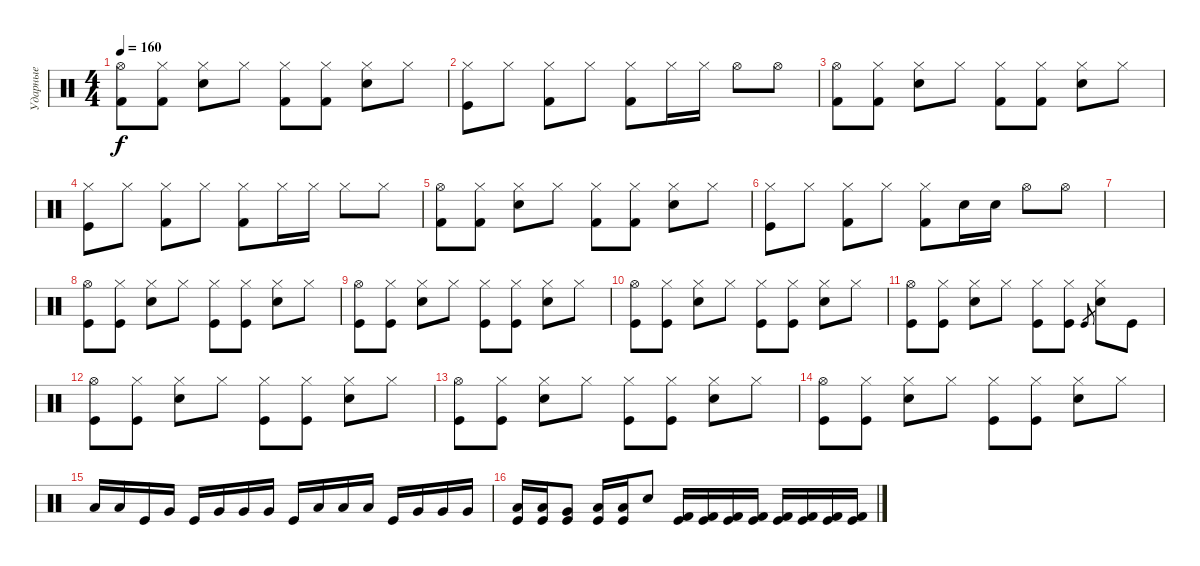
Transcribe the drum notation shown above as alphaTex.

\track ("Ударные" "Ударные") {instrument percussion}
\staff {score}
\articulation defaults
\ts (4 4)
\tempo 160
\clef neutral
\ks c
("Hi-Hat (open)" "Kick (hit) 2").8{dy f} ("Hi-Hat (closed)" "Kick (hit) 2").8 ("Hi-Hat (closed)" "Snare (hit) 2").8 "Hi-Hat (closed)".8 ("Hi-Hat (closed)" "Kick (hit) 2").8 ("Hi-Hat (closed)" "Kick (hit) 2").8 ("Hi-Hat (closed)" "Snare (hit) 2").8 "Hi-Hat (closed)".8 |
("Hi-Hat (closed)" "Kick (hit)").8 "Hi-Hat (closed)".8 ("Hi-Hat (closed)" "Kick (hit) 2").8 "Hi-Hat (closed)".8 ("Hi-Hat (closed)" "Kick (hit) 2").8 "Hi-Hat (closed)".16 "Hi-Hat (closed)".16 "Hi-Hat (open)".8 "Hi-Hat (open)".8 |
("Hi-Hat (open)" "Kick (hit) 2").8 ("Hi-Hat (closed)" "Kick (hit) 2").8 ("Hi-Hat (closed)" "Snare (hit) 2").8 "Hi-Hat (closed)".8 ("Hi-Hat (closed)" "Kick (hit) 2").8 ("Hi-Hat (closed)" "Kick (hit) 2").8 ("Hi-Hat (closed)" "Snare (hit) 2").8 "Hi-Hat (closed)".8 |
("Hi-Hat (closed)" "Kick (hit)").8 "Hi-Hat (closed)".8 ("Hi-Hat (closed)" "Kick (hit) 2").8 "Hi-Hat (closed)".8 ("Hi-Hat (closed)" "Kick (hit) 2").8 "Hi-Hat (closed)".16 "Hi-Hat (closed)".16 "Hi-Hat (closed)".8 "Hi-Hat (closed)".8 |
("Hi-Hat (open)" "Kick (hit) 2").8 ("Hi-Hat (closed)" "Kick (hit) 2").8 ("Hi-Hat (closed)" "Snare (hit) 2").8 "Hi-Hat (closed)".8 ("Hi-Hat (closed)" "Kick (hit) 2").8 ("Hi-Hat (closed)" "Kick (hit) 2").8 ("Hi-Hat (closed)" "Snare (hit) 2").8 "Hi-Hat (closed)".8 |
("Hi-Hat (closed)" "Kick (hit)").8 "Hi-Hat (closed)".8 ("Hi-Hat (closed)" "Kick (hit) 2").8 "Hi-Hat (closed)".8 ("Hi-Hat (closed)" "Kick (hit) 2").8 "Snare (hit) 2".16 "Snare (hit) 2".16 "Hi-Hat (open)".8 "Hi-Hat (open)".8 |
|
("Hi-Hat (open)" "Kick (hit)").8 ("Hi-Hat (closed)" "Kick (hit)").8 ("Hi-Hat (closed)" "Snare (hit) 2").8 "Hi-Hat (closed)".8 ("Hi-Hat (closed)" "Kick (hit)").8 ("Hi-Hat (closed)" "Kick (hit)").8 ("Hi-Hat (closed)" "Snare (hit) 2").8 "Hi-Hat (closed)".8 |
("Hi-Hat (open)" "Kick (hit)").8 ("Hi-Hat (closed)" "Kick (hit)").8 ("Hi-Hat (closed)" "Snare (hit) 2").8 "Hi-Hat (closed)".8 ("Hi-Hat (closed)" "Kick (hit)").8 ("Hi-Hat (closed)" "Kick (hit)").8 ("Hi-Hat (closed)" "Snare (hit) 2").8 "Hi-Hat (closed)".8 |
("Hi-Hat (open)" "Kick (hit)").8 ("Hi-Hat (closed)" "Kick (hit)").8 ("Hi-Hat (closed)" "Snare (hit) 2").8 "Hi-Hat (closed)".8 ("Hi-Hat (closed)" "Kick (hit)").8 ("Hi-Hat (closed)" "Kick (hit)").8 ("Hi-Hat (closed)" "Snare (hit) 2").8 "Hi-Hat (closed)".8 |
("Hi-Hat (open)" "Kick (hit)").8 ("Hi-Hat (closed)" "Kick (hit)").8 ("Hi-Hat (closed)" "Snare (hit) 2").8 "Hi-Hat (closed)".8 ("Hi-Hat (closed)" "Kick (hit)").8 ("Hi-Hat (closed)" "Kick (hit)").8 "Kick (hit)".8{gr} ("Hi-Hat (closed)" "Snare (hit) 2").8 "Kick (hit)".8 |
("Hi-Hat (open)" "Kick (hit)").8 ("Hi-Hat (closed)" "Kick (hit)").8 ("Hi-Hat (closed)" "Snare (hit) 2").8 "Hi-Hat (closed)".8 ("Hi-Hat (closed)" "Kick (hit)").8 ("Hi-Hat (closed)" "Kick (hit)").8 ("Hi-Hat (closed)" "Snare (hit) 2").8 "Hi-Hat (closed)".8 |
("Hi-Hat (open)" "Kick (hit)").8 ("Hi-Hat (closed)" "Kick (hit)").8 ("Hi-Hat (closed)" "Snare (hit) 2").8 "Hi-Hat (closed)".8 ("Hi-Hat (closed)" "Kick (hit)").8 ("Hi-Hat (closed)" "Kick (hit)").8 ("Hi-Hat (closed)" "Snare (hit) 2").8 "Hi-Hat (closed)".8 |
("Hi-Hat (open)" "Kick (hit)").8 ("Hi-Hat (closed)" "Kick (hit)").8 ("Hi-Hat (closed)" "Snare (hit) 2").8 "Hi-Hat (closed)".8 ("Hi-Hat (closed)" "Kick (hit)").8 ("Hi-Hat (closed)" "Kick (hit)").8 ("Hi-Hat (closed)" "Snare (hit) 2").8 "Hi-Hat (closed)".8 |
"Low Tom (hit)".16 "Low Tom (hit)".16 "Kick (hit)".16 "Very Low Tom (hit)".16 "Kick (hit)".16 "Very Low Tom (hit)".16 "Very Low Tom (hit)".16 "Very Low Tom (hit)".16 "Kick (hit)".16 "Low Tom (hit)".16 "Low Tom (hit)".16 "Low Tom (hit)".16 "Kick (hit)".16 "Very Low Tom (hit)".16 "Very Low Tom (hit)".16 "Very Low Tom (hit)".16 |
("Low Tom (hit)" "Kick (hit)").16 ("Low Tom (hit)" "Kick (hit)").16 ("Very Low Tom (hit)" "Kick (hit)").8 ("Low Tom (hit)" "Kick (hit)").16 ("Low Tom (hit)" "Kick (hit)").16 "Snare (hit) 2".8 ("Kick (hit)" "Kick (hit) 2").16 ("Kick (hit)" "Kick (hit) 2").16 ("Kick (hit)" "Kick (hit) 2").16 ("Kick (hit)" "Kick (hit) 2").16 ("Kick (hit)" "Kick (hit) 2").16 ("Kick (hit)" "Kick (hit) 2").16 ("Kick (hit)" "Kick (hit) 2").16 ("Kick (hit)" "Kick (hit) 2").16
